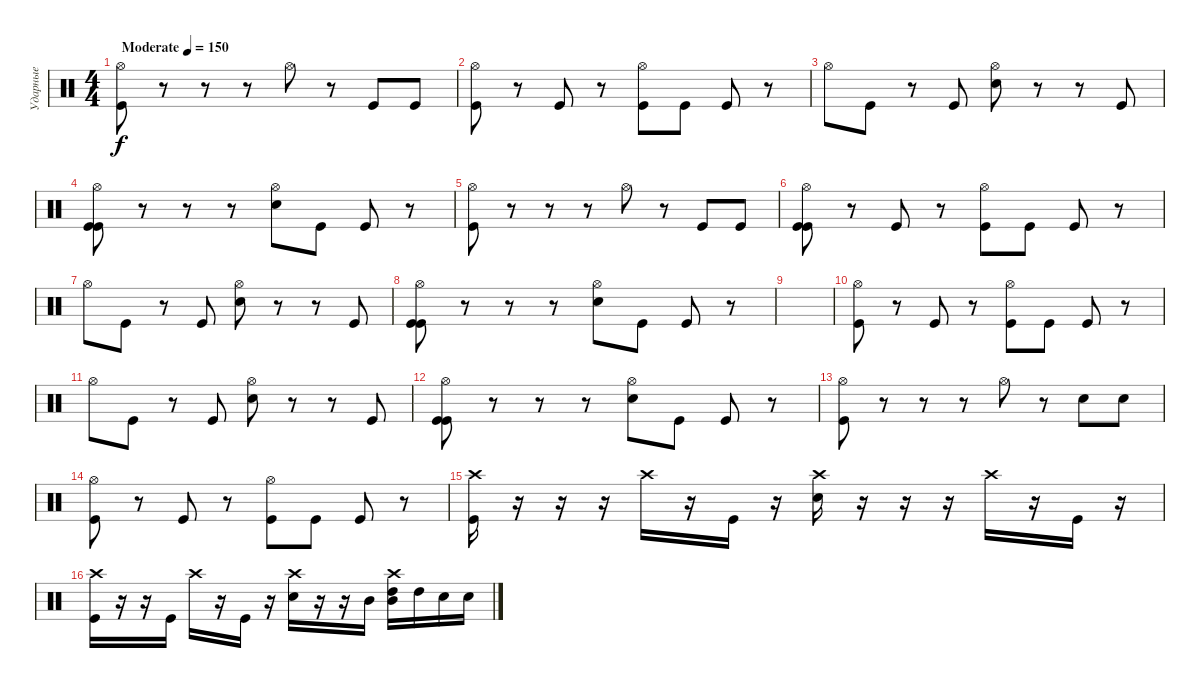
\track ("Ударные" "Ударные") {instrument percussion}
\staff {score}
\articulation defaults
\ts (4 4)
\tempo (150 "Moderate")
\clef neutral
\ks c
("Hi-Hat (open)" "Kick (hit)").8{dy f} r.8 r.8 r.8 "Hi-Hat (open)".8 r.8 "Kick (hit)".8 "Kick (hit)".8 |
("Hi-Hat (open)" "Kick (hit)").8 r.8 "Kick (hit)".8 r.8 ("Hi-Hat (open)" "Kick (hit)").8 "Kick (hit)".8 "Kick (hit)".8 r.8 |
"Hi-Hat (open)".8 "Kick (hit)".8 r.8 "Kick (hit)".8 ("Hi-Hat (open)" "Electric Snare (hit)").8 r.8 r.8 "Kick (hit)".8 |
("Hi-Hat (open)" "Kick (hit)" "Kick (hit)").8 r.8 r.8 r.8 ("Hi-Hat (open)" "Electric Snare (hit)").8 "Kick (hit)".8 "Kick (hit)".8 r.8 |
("Hi-Hat (open)" "Kick (hit)").8 r.8 r.8 r.8 "Hi-Hat (open)".8 r.8 "Kick (hit)".8 "Kick (hit)".8 |
("Hi-Hat (open)" "Kick (hit)" "Kick (hit)").8 r.8 "Kick (hit)".8 r.8 ("Hi-Hat (open)" "Kick (hit)").8 "Kick (hit)".8 "Kick (hit)".8 r.8 |
"Hi-Hat (open)".8 "Kick (hit)".8 r.8 "Kick (hit)".8 ("Hi-Hat (open)" "Electric Snare (hit)").8 r.8 r.8 "Kick (hit)".8 |
("Hi-Hat (open)" "Kick (hit)" "Kick (hit)").8 r.8 r.8 r.8 ("Hi-Hat (open)" "Electric Snare (hit)").8 "Kick (hit)".8 "Kick (hit)".8 r.8 |
|
("Hi-Hat (open)" "Kick (hit)").8 r.8 "Kick (hit)".8 r.8 ("Hi-Hat (open)" "Kick (hit)").8 "Kick (hit)".8 "Kick (hit)".8 r.8 |
"Hi-Hat (open)".8 "Kick (hit)".8 r.8 "Kick (hit)".8 ("Hi-Hat (open)" "Electric Snare (hit)").8 r.8 r.8 "Kick (hit)".8 |
("Hi-Hat (open)" "Kick (hit)" "Kick (hit)").8 r.8 r.8 r.8 ("Hi-Hat (open)" "Electric Snare (hit)").8 "Kick (hit)".8 "Kick (hit)".8 r.8 |
("Hi-Hat (open)" "Kick (hit)").8 r.8 r.8 r.8 "Hi-Hat (open)".8 r.8 "Electric Snare (hit)".8 "Electric Snare (hit)".8 |
("Hi-Hat (open)" "Kick (hit)").8 r.8 "Kick (hit)".8 r.8 ("Hi-Hat (open)" "Kick (hit)").8 "Kick (hit)".8 "Kick (hit)".8 r.8 |
("Crash high (hit)" "Kick (hit)").16 r.16 r.16 r.16 "Crash high (hit)".16 r.16 "Kick (hit)".16 r.16 ("Crash high (hit)" "Electric Snare (hit)").16 r.16 r.16 r.16 "Crash high (hit)".16 r.16 "Kick (hit)".16 r.16 |
("Crash high (hit)" "Kick (hit)").16 r.16 r.16 "Kick (hit)".16 "Crash high (hit)".16 r.16 "Kick (hit)".16 r.16 ("Crash high (hit)" "Electric Snare (hit)").16 r.16 r.16 "Mid Tom (hit)".16 ("Crash high (hit)" "Mid Tom (hit)" "High Tom (hit)").16 "High Tom (hit)".16 "Electric Snare (hit)".16 "Electric Snare (hit)".16
